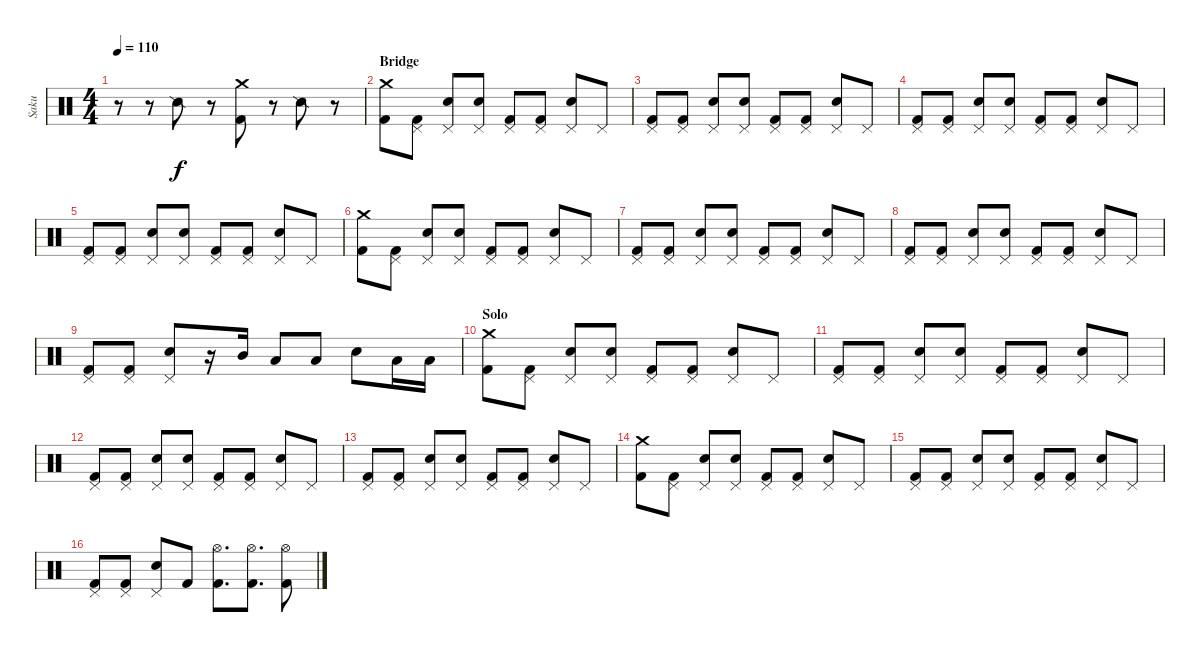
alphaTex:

\track ("Saku" "Saku") {instrument percussion}
\staff {score}
\articulation defaults
\ts (4 4)
\tempo 110
\clef neutral
\ks c
r.8{dy f} r.8 "Snare (side stick) 2".8 r.8 ("Crash medium (hit)" "Kick (hit) 2").8 r.8 "Snare (side stick) 2".8 r.8 |
\section ("" "Bridge")
("Crash medium (hit)" "Kick (hit) 2").8 ("Pedal Hi-Hat (hit)" "Kick (hit) 2").8 ("Pedal Hi-Hat (hit)" "Electric Snare (hit)").8 ("Pedal Hi-Hat (hit)" "Electric Snare (hit)").8 ("Pedal Hi-Hat (hit)" "Kick (hit) 2").8 ("Pedal Hi-Hat (hit)" "Kick (hit) 2").8 ("Pedal Hi-Hat (hit)" "Electric Snare (hit)").8 "Pedal Hi-Hat (hit)".8 |
("Pedal Hi-Hat (hit)" "Kick (hit) 2").8 ("Pedal Hi-Hat (hit)" "Kick (hit) 2").8 ("Pedal Hi-Hat (hit)" "Electric Snare (hit)").8 ("Pedal Hi-Hat (hit)" "Electric Snare (hit)").8 ("Pedal Hi-Hat (hit)" "Kick (hit) 2").8 ("Pedal Hi-Hat (hit)" "Kick (hit) 2").8 ("Pedal Hi-Hat (hit)" "Electric Snare (hit)").8 "Pedal Hi-Hat (hit)".8 |
("Pedal Hi-Hat (hit)" "Kick (hit) 2").8 ("Pedal Hi-Hat (hit)" "Kick (hit) 2").8 ("Pedal Hi-Hat (hit)" "Electric Snare (hit)").8 ("Pedal Hi-Hat (hit)" "Electric Snare (hit)").8 ("Pedal Hi-Hat (hit)" "Kick (hit) 2").8 ("Pedal Hi-Hat (hit)" "Kick (hit) 2").8 ("Pedal Hi-Hat (hit)" "Electric Snare (hit)").8 "Pedal Hi-Hat (hit)".8 |
("Pedal Hi-Hat (hit)" "Kick (hit) 2").8 ("Pedal Hi-Hat (hit)" "Kick (hit) 2").8 ("Pedal Hi-Hat (hit)" "Electric Snare (hit)").8 ("Pedal Hi-Hat (hit)" "Electric Snare (hit)").8 ("Pedal Hi-Hat (hit)" "Kick (hit) 2").8 ("Pedal Hi-Hat (hit)" "Kick (hit) 2").8 ("Pedal Hi-Hat (hit)" "Electric Snare (hit)").8 "Pedal Hi-Hat (hit)".8 |
("Crash medium (hit)" "Kick (hit) 2").8 ("Pedal Hi-Hat (hit)" "Kick (hit) 2").8 ("Pedal Hi-Hat (hit)" "Electric Snare (hit)").8 ("Pedal Hi-Hat (hit)" "Electric Snare (hit)").8 ("Pedal Hi-Hat (hit)" "Kick (hit) 2").8 ("Pedal Hi-Hat (hit)" "Kick (hit) 2").8 ("Pedal Hi-Hat (hit)" "Electric Snare (hit)").8 "Pedal Hi-Hat (hit)".8 |
("Pedal Hi-Hat (hit)" "Kick (hit) 2").8 ("Pedal Hi-Hat (hit)" "Kick (hit) 2").8 ("Pedal Hi-Hat (hit)" "Electric Snare (hit)").8 ("Pedal Hi-Hat (hit)" "Electric Snare (hit)").8 ("Pedal Hi-Hat (hit)" "Kick (hit) 2").8 ("Pedal Hi-Hat (hit)" "Kick (hit) 2").8 ("Pedal Hi-Hat (hit)" "Electric Snare (hit)").8 "Pedal Hi-Hat (hit)".8 |
("Pedal Hi-Hat (hit)" "Kick (hit) 2").8 ("Pedal Hi-Hat (hit)" "Kick (hit) 2").8 ("Pedal Hi-Hat (hit)" "Electric Snare (hit)").8 ("Pedal Hi-Hat (hit)" "Electric Snare (hit)").8 ("Pedal Hi-Hat (hit)" "Kick (hit) 2").8 ("Pedal Hi-Hat (hit)" "Kick (hit) 2").8 ("Pedal Hi-Hat (hit)" "Electric Snare (hit)").8 "Pedal Hi-Hat (hit)".8 |
("Pedal Hi-Hat (hit)" "Kick (hit) 2").8 ("Pedal Hi-Hat (hit)" "Kick (hit) 2").8 ("Pedal Hi-Hat (hit)" "Electric Snare (hit)").8 r.16 "Mid Tom (hit)".16 "Low Tom (hit)".8 "Low Tom (hit)".8 "Electric Snare (hit)".8 "Low Tom (hit)".16 "Low Tom (hit)".16 |
\section ("" "Solo")
("Crash medium (hit)" "Kick (hit) 2").8 ("Pedal Hi-Hat (hit)" "Kick (hit) 2").8 ("Pedal Hi-Hat (hit)" "Electric Snare (hit)").8 ("Pedal Hi-Hat (hit)" "Electric Snare (hit)").8 ("Pedal Hi-Hat (hit)" "Kick (hit) 2").8 ("Pedal Hi-Hat (hit)" "Kick (hit) 2").8 ("Pedal Hi-Hat (hit)" "Electric Snare (hit)").8 "Pedal Hi-Hat (hit)".8 |
("Pedal Hi-Hat (hit)" "Kick (hit) 2").8 ("Pedal Hi-Hat (hit)" "Kick (hit) 2").8 ("Pedal Hi-Hat (hit)" "Electric Snare (hit)").8 ("Pedal Hi-Hat (hit)" "Electric Snare (hit)").8 ("Pedal Hi-Hat (hit)" "Kick (hit) 2").8 ("Pedal Hi-Hat (hit)" "Kick (hit) 2").8 ("Pedal Hi-Hat (hit)" "Electric Snare (hit)").8 "Pedal Hi-Hat (hit)".8 |
("Pedal Hi-Hat (hit)" "Kick (hit) 2").8 ("Pedal Hi-Hat (hit)" "Kick (hit) 2").8 ("Pedal Hi-Hat (hit)" "Electric Snare (hit)").8 ("Pedal Hi-Hat (hit)" "Electric Snare (hit)").8 ("Pedal Hi-Hat (hit)" "Kick (hit) 2").8 ("Pedal Hi-Hat (hit)" "Kick (hit) 2").8 ("Pedal Hi-Hat (hit)" "Electric Snare (hit)").8 "Pedal Hi-Hat (hit)".8 |
("Pedal Hi-Hat (hit)" "Kick (hit) 2").8 ("Pedal Hi-Hat (hit)" "Kick (hit) 2").8 ("Pedal Hi-Hat (hit)" "Electric Snare (hit)").8 ("Pedal Hi-Hat (hit)" "Electric Snare (hit)").8 ("Pedal Hi-Hat (hit)" "Kick (hit) 2").8 ("Pedal Hi-Hat (hit)" "Kick (hit) 2").8 ("Pedal Hi-Hat (hit)" "Electric Snare (hit)").8 "Pedal Hi-Hat (hit)".8 |
("Crash medium (hit)" "Kick (hit) 2").8 ("Pedal Hi-Hat (hit)" "Kick (hit) 2").8 ("Pedal Hi-Hat (hit)" "Electric Snare (hit)").8 ("Pedal Hi-Hat (hit)" "Electric Snare (hit)").8 ("Pedal Hi-Hat (hit)" "Kick (hit) 2").8 ("Pedal Hi-Hat (hit)" "Kick (hit) 2").8 ("Pedal Hi-Hat (hit)" "Electric Snare (hit)").8 "Pedal Hi-Hat (hit)".8 |
("Pedal Hi-Hat (hit)" "Kick (hit) 2").8 ("Pedal Hi-Hat (hit)" "Kick (hit) 2").8 ("Pedal Hi-Hat (hit)" "Electric Snare (hit)").8 ("Pedal Hi-Hat (hit)" "Electric Snare (hit)").8 ("Pedal Hi-Hat (hit)" "Kick (hit) 2").8 ("Pedal Hi-Hat (hit)" "Kick (hit) 2").8 ("Pedal Hi-Hat (hit)" "Electric Snare (hit)").8 "Pedal Hi-Hat (hit)".8 |
("Pedal Hi-Hat (hit)" "Kick (hit) 2").8 ("Pedal Hi-Hat (hit)" "Kick (hit) 2").8 ("Pedal Hi-Hat (hit)" "Electric Snare (hit)").8 "Kick (hit) 2".8 ("Hi-Hat (open)" "Kick (hit) 2").8{d} ("Hi-Hat (open)" "Kick (hit) 2").8{d} ("Hi-Hat (open)" "Kick (hit) 2").8
